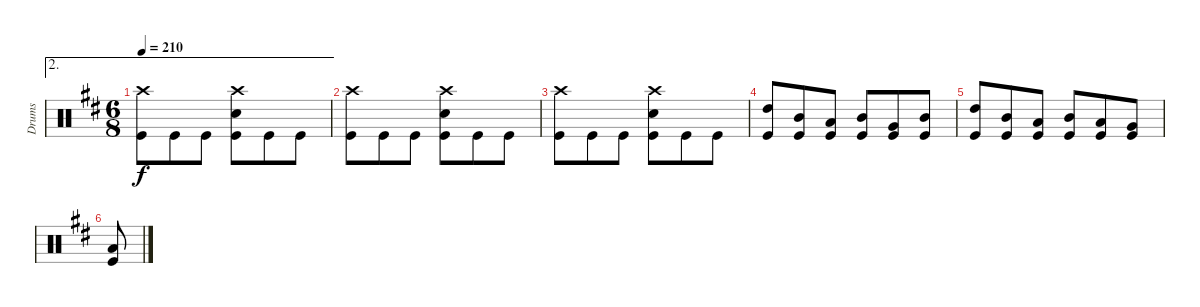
\track ("Drums" "Drums") {instrument percussion}
\staff {score}
\articulation defaults
\ae 2
\ts (6 8)
\tempo 210
\clef neutral
\ks bminor
("Crash high (hit)" "Kick (hit)").8{dy f} "Kick (hit)".8 "Kick (hit)".8 ("Crash high (hit)" "Snare (hit) 2" "Kick (hit)").8 "Kick (hit)".8 "Kick (hit)".8 |
("Crash high (hit)" "Kick (hit)").8 "Kick (hit)".8 "Kick (hit)".8 ("Crash high (hit)" "Snare (hit) 2" "Kick (hit)").8 "Kick (hit)".8 "Kick (hit)".8 |
("Crash high (hit)" "Kick (hit)").8 "Kick (hit)".8 "Kick (hit)".8 ("Crash high (hit)" "Snare (hit) 2" "Kick (hit)").8 "Kick (hit)".8 "Kick (hit)".8 |
("High Tom (hit)" "Kick (hit)").8 ("Mid Tom (hit)" "Kick (hit)").8 ("Low Tom (hit)" "Kick (hit)").8 ("Mid Tom (hit)" "Kick (hit)").8 ("Very Low Tom (hit)" "Kick (hit)").8 ("Mid Tom (hit)" "Kick (hit)").8 |
("High Tom (hit)" "Kick (hit)").8 ("Mid Tom (hit)" "Kick (hit)").8 ("Low Tom (hit)" "Kick (hit)").8 ("Mid Tom (hit)" "Kick (hit)").8 ("Low Tom (hit)" "Kick (hit)").8 ("Very Low Tom (hit)" "Kick (hit)").8 |
("Low Floor Tom (hit)" "Kick (hit)").8
